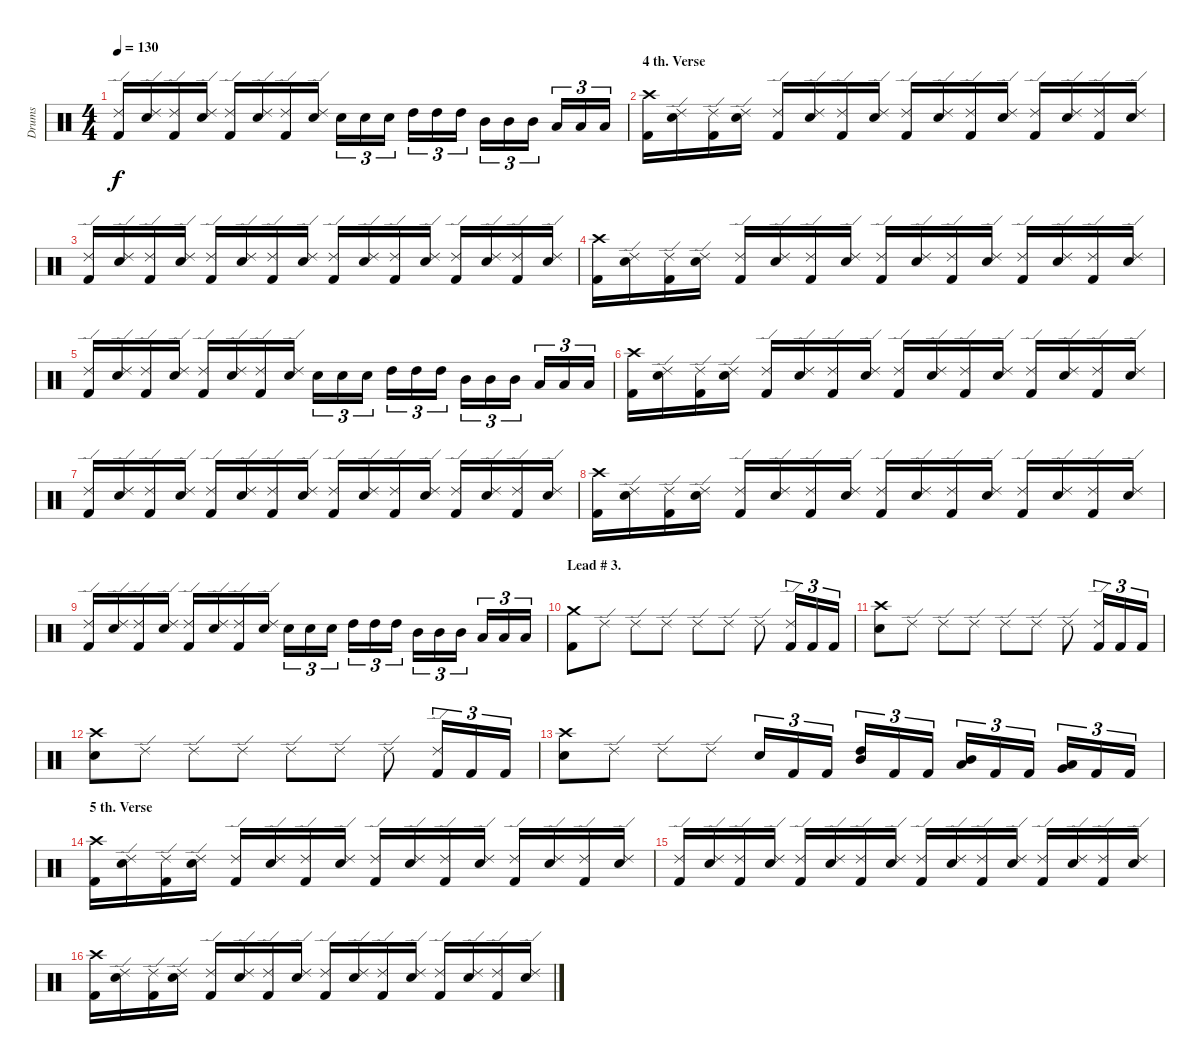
\track ("Drums" "Drums") {instrument percussion}
\staff {score}
\articulation defaults
\ts (4 4)
\tempo 130
\clef neutral
\ks c
("Ride (edge) 2" "Kick (hit) 2").16{dy f} ("Ride (edge) 2" "Snare (hit) 2").16 ("Ride (edge) 2" "Kick (hit) 2").16 ("Ride (edge) 2" "Snare (hit) 2").16 ("Ride (edge) 2" "Kick (hit) 2").16 ("Ride (edge) 2" "Snare (hit) 2").16 ("Ride (edge) 2" "Kick (hit) 2").16 ("Ride (edge) 2" "Snare (hit) 2").16 "Snare (hit) 2".16{tu (3 2)} "Snare (hit) 2".16{tu (3 2)} "Snare (hit) 2".16{tu (3 2)} "High Tom (hit)".16{tu (3 2)} "High Tom (hit)".16{tu (3 2)} "High Tom (hit)".16{tu (3 2)} "Mid Tom (hit)".16{tu (3 2)} "Mid Tom (hit)".16{tu (3 2)} "Mid Tom (hit)".16{tu (3 2)} "Low Tom (hit)".16{tu (3 2)} "Low Tom (hit)".16{tu (3 2)} "Low Tom (hit)".16{tu (3 2)} |
\section ("" "4 th. Verse")
("Crash high (hit)" "Kick (hit) 2").16 ("Ride (edge) 2" "Snare (hit) 2").16 ("Ride (edge) 2" "Kick (hit) 2").16 ("Ride (edge) 2" "Snare (hit) 2").16 ("Ride (edge) 2" "Kick (hit) 2").16 ("Ride (edge) 2" "Snare (hit) 2").16 ("Ride (edge) 2" "Kick (hit) 2").16 ("Ride (edge) 2" "Snare (hit) 2").16 ("Ride (edge) 2" "Kick (hit) 2").16 ("Ride (edge) 2" "Snare (hit) 2").16 ("Ride (edge) 2" "Kick (hit) 2").16 ("Ride (edge) 2" "Snare (hit) 2").16 ("Ride (edge) 2" "Kick (hit) 2").16 ("Ride (edge) 2" "Snare (hit) 2").16 ("Ride (edge) 2" "Kick (hit) 2").16 ("Ride (edge) 2" "Snare (hit) 2").16 |
("Ride (edge) 2" "Kick (hit) 2").16 ("Ride (edge) 2" "Snare (hit) 2").16 ("Ride (edge) 2" "Kick (hit) 2").16 ("Ride (edge) 2" "Snare (hit) 2").16 ("Ride (edge) 2" "Kick (hit) 2").16 ("Ride (edge) 2" "Snare (hit) 2").16 ("Ride (edge) 2" "Kick (hit) 2").16 ("Ride (edge) 2" "Snare (hit) 2").16 ("Ride (edge) 2" "Kick (hit) 2").16 ("Ride (edge) 2" "Snare (hit) 2").16 ("Ride (edge) 2" "Kick (hit) 2").16 ("Ride (edge) 2" "Snare (hit) 2").16 ("Ride (edge) 2" "Kick (hit) 2").16 ("Ride (edge) 2" "Snare (hit) 2").16 ("Ride (edge) 2" "Kick (hit) 2").16 ("Ride (edge) 2" "Snare (hit) 2").16 |
("Crash high (hit)" "Kick (hit) 2").16 ("Ride (edge) 2" "Snare (hit) 2").16 ("Ride (edge) 2" "Kick (hit) 2").16 ("Ride (edge) 2" "Snare (hit) 2").16 ("Ride (edge) 2" "Kick (hit) 2").16 ("Ride (edge) 2" "Snare (hit) 2").16 ("Ride (edge) 2" "Kick (hit) 2").16 ("Ride (edge) 2" "Snare (hit) 2").16 ("Ride (edge) 2" "Kick (hit) 2").16 ("Ride (edge) 2" "Snare (hit) 2").16 ("Ride (edge) 2" "Kick (hit) 2").16 ("Ride (edge) 2" "Snare (hit) 2").16 ("Ride (edge) 2" "Kick (hit) 2").16 ("Ride (edge) 2" "Snare (hit) 2").16 ("Ride (edge) 2" "Kick (hit) 2").16 ("Ride (edge) 2" "Snare (hit) 2").16 |
("Ride (edge) 2" "Kick (hit) 2").16 ("Ride (edge) 2" "Snare (hit) 2").16 ("Ride (edge) 2" "Kick (hit) 2").16 ("Ride (edge) 2" "Snare (hit) 2").16 ("Ride (edge) 2" "Kick (hit) 2").16 ("Ride (edge) 2" "Snare (hit) 2").16 ("Ride (edge) 2" "Kick (hit) 2").16 ("Ride (edge) 2" "Snare (hit) 2").16 "Snare (hit) 2".16{tu (3 2)} "Snare (hit) 2".16{tu (3 2)} "Snare (hit) 2".16{tu (3 2)} "High Tom (hit)".16{tu (3 2)} "High Tom (hit)".16{tu (3 2)} "High Tom (hit)".16{tu (3 2)} "Mid Tom (hit)".16{tu (3 2)} "Mid Tom (hit)".16{tu (3 2)} "Mid Tom (hit)".16{tu (3 2)} "Low Tom (hit)".16{tu (3 2)} "Low Tom (hit)".16{tu (3 2)} "Low Tom (hit)".16{tu (3 2)} |
("Crash high (hit)" "Kick (hit) 2").16 ("Ride (edge) 2" "Snare (hit) 2").16 ("Ride (edge) 2" "Kick (hit) 2").16 ("Ride (edge) 2" "Snare (hit) 2").16 ("Ride (edge) 2" "Kick (hit) 2").16 ("Ride (edge) 2" "Snare (hit) 2").16 ("Ride (edge) 2" "Kick (hit) 2").16 ("Ride (edge) 2" "Snare (hit) 2").16 ("Ride (edge) 2" "Kick (hit) 2").16 ("Ride (edge) 2" "Snare (hit) 2").16 ("Ride (edge) 2" "Kick (hit) 2").16 ("Ride (edge) 2" "Snare (hit) 2").16 ("Ride (edge) 2" "Kick (hit) 2").16 ("Ride (edge) 2" "Snare (hit) 2").16 ("Ride (edge) 2" "Kick (hit) 2").16 ("Ride (edge) 2" "Snare (hit) 2").16 |
("Ride (edge) 2" "Kick (hit) 2").16 ("Ride (edge) 2" "Snare (hit) 2").16 ("Ride (edge) 2" "Kick (hit) 2").16 ("Ride (edge) 2" "Snare (hit) 2").16 ("Ride (edge) 2" "Kick (hit) 2").16 ("Ride (edge) 2" "Snare (hit) 2").16 ("Ride (edge) 2" "Kick (hit) 2").16 ("Ride (edge) 2" "Snare (hit) 2").16 ("Ride (edge) 2" "Kick (hit) 2").16 ("Ride (edge) 2" "Snare (hit) 2").16 ("Ride (edge) 2" "Kick (hit) 2").16 ("Ride (edge) 2" "Snare (hit) 2").16 ("Ride (edge) 2" "Kick (hit) 2").16 ("Ride (edge) 2" "Snare (hit) 2").16 ("Ride (edge) 2" "Kick (hit) 2").16 ("Ride (edge) 2" "Snare (hit) 2").16 |
("Crash high (hit)" "Kick (hit) 2").16 ("Ride (edge) 2" "Snare (hit) 2").16 ("Ride (edge) 2" "Kick (hit) 2").16 ("Ride (edge) 2" "Snare (hit) 2").16 ("Ride (edge) 2" "Kick (hit) 2").16 ("Ride (edge) 2" "Snare (hit) 2").16 ("Ride (edge) 2" "Kick (hit) 2").16 ("Ride (edge) 2" "Snare (hit) 2").16 ("Ride (edge) 2" "Kick (hit) 2").16 ("Ride (edge) 2" "Snare (hit) 2").16 ("Ride (edge) 2" "Kick (hit) 2").16 ("Ride (edge) 2" "Snare (hit) 2").16 ("Ride (edge) 2" "Kick (hit) 2").16 ("Ride (edge) 2" "Snare (hit) 2").16 ("Ride (edge) 2" "Kick (hit) 2").16 ("Ride (edge) 2" "Snare (hit) 2").16 |
("Ride (edge) 2" "Kick (hit) 2").16 ("Ride (edge) 2" "Snare (hit) 2").16 ("Ride (edge) 2" "Kick (hit) 2").16 ("Ride (edge) 2" "Snare (hit) 2").16 ("Ride (edge) 2" "Kick (hit) 2").16 ("Ride (edge) 2" "Snare (hit) 2").16 ("Ride (edge) 2" "Kick (hit) 2").16 ("Ride (edge) 2" "Snare (hit) 2").16 "Snare (hit) 2".16{tu (3 2)} "Snare (hit) 2".16{tu (3 2)} "Snare (hit) 2".16{tu (3 2)} "High Tom (hit)".16{tu (3 2)} "High Tom (hit)".16{tu (3 2)} "High Tom (hit)".16{tu (3 2)} "Mid Tom (hit)".16{tu (3 2)} "Mid Tom (hit)".16{tu (3 2)} "Mid Tom (hit)".16{tu (3 2)} "Low Tom (hit)".16{tu (3 2)} "Low Tom (hit)".16{tu (3 2)} "Low Tom (hit)".16{tu (3 2)} |
\section ("" "Lead # 3.")
("Crash medium (hit)" "Kick (hit) 2").8 "Ride (edge) 2".8 "Ride (edge) 2".8 "Ride (edge) 2".8 "Ride (edge) 2".8 "Ride (edge) 2".8 "Ride (edge) 2".8 ("Ride (edge) 2" "Kick (hit) 2").16{tu (3 2)} "Kick (hit) 2".16{tu (3 2)} "Kick (hit) 2".16{tu (3 2)} |
("Crash high (hit)" "Snare (hit) 2").8 "Ride (edge) 2".8 "Ride (edge) 2".8 "Ride (edge) 2".8 "Ride (edge) 2".8 "Ride (edge) 2".8 "Ride (edge) 2".8 ("Ride (edge) 2" "Kick (hit) 2").16{tu (3 2)} "Kick (hit) 2".16{tu (3 2)} "Kick (hit) 2".16{tu (3 2)} |
("Crash high (hit)" "Snare (hit) 2").8 "Ride (edge) 2".8 "Ride (edge) 2".8 "Ride (edge) 2".8 "Ride (edge) 2".8 "Ride (edge) 2".8 "Ride (edge) 2".8 ("Ride (edge) 2" "Kick (hit) 2").16{tu (3 2)} "Kick (hit) 2".16{tu (3 2)} "Kick (hit) 2".16{tu (3 2)} |
("Crash high (hit)" "Snare (hit) 2").8 "Ride (edge) 2".8 "Ride (edge) 2".8 "Ride (edge) 2".8 "Snare (hit) 2".16{tu (3 2)} "Kick (hit) 2".16{tu (3 2)} "Kick (hit) 2".16{tu (3 2)} ("Mid Tom (hit)" "High Tom (hit)").16{tu (3 2)} "Kick (hit) 2".16{tu (3 2)} "Kick (hit) 2".16{tu (3 2)} ("Mid Tom (hit)" "Low Tom (hit)").16{tu (3 2)} "Kick (hit) 2".16{tu (3 2)} "Kick (hit) 2".16{tu (3 2)} ("Very Low Tom (hit)" "Low Floor Tom (hit)").16{tu (3 2)} "Kick (hit) 2".16{tu (3 2)} "Kick (hit) 2".16{tu (3 2)} |
\section ("" "5 th. Verse")
("Crash high (hit)" "Kick (hit) 2").16 ("Ride (edge) 2" "Snare (hit) 2").16 ("Ride (edge) 2" "Kick (hit) 2").16 ("Ride (edge) 2" "Snare (hit) 2").16 ("Ride (edge) 2" "Kick (hit) 2").16 ("Ride (edge) 2" "Snare (hit) 2").16 ("Ride (edge) 2" "Kick (hit) 2").16 ("Ride (edge) 2" "Snare (hit) 2").16 ("Ride (edge) 2" "Kick (hit) 2").16 ("Ride (edge) 2" "Snare (hit) 2").16 ("Ride (edge) 2" "Kick (hit) 2").16 ("Ride (edge) 2" "Snare (hit) 2").16 ("Ride (edge) 2" "Kick (hit) 2").16 ("Ride (edge) 2" "Snare (hit) 2").16 ("Ride (edge) 2" "Kick (hit) 2").16 ("Ride (edge) 2" "Snare (hit) 2").16 |
("Ride (edge) 2" "Kick (hit) 2").16 ("Ride (edge) 2" "Snare (hit) 2").16 ("Ride (edge) 2" "Kick (hit) 2").16 ("Ride (edge) 2" "Snare (hit) 2").16 ("Ride (edge) 2" "Kick (hit) 2").16 ("Ride (edge) 2" "Snare (hit) 2").16 ("Ride (edge) 2" "Kick (hit) 2").16 ("Ride (edge) 2" "Snare (hit) 2").16 ("Ride (edge) 2" "Kick (hit) 2").16 ("Ride (edge) 2" "Snare (hit) 2").16 ("Ride (edge) 2" "Kick (hit) 2").16 ("Ride (edge) 2" "Snare (hit) 2").16 ("Ride (edge) 2" "Kick (hit) 2").16 ("Ride (edge) 2" "Snare (hit) 2").16 ("Ride (edge) 2" "Kick (hit) 2").16 ("Ride (edge) 2" "Snare (hit) 2").16 |
("Crash high (hit)" "Kick (hit) 2").16 ("Ride (edge) 2" "Snare (hit) 2").16 ("Ride (edge) 2" "Kick (hit) 2").16 ("Ride (edge) 2" "Snare (hit) 2").16 ("Ride (edge) 2" "Kick (hit) 2").16 ("Ride (edge) 2" "Snare (hit) 2").16 ("Ride (edge) 2" "Kick (hit) 2").16 ("Ride (edge) 2" "Snare (hit) 2").16 ("Ride (edge) 2" "Kick (hit) 2").16 ("Ride (edge) 2" "Snare (hit) 2").16 ("Ride (edge) 2" "Kick (hit) 2").16 ("Ride (edge) 2" "Snare (hit) 2").16 ("Ride (edge) 2" "Kick (hit) 2").16 ("Ride (edge) 2" "Snare (hit) 2").16 ("Ride (edge) 2" "Kick (hit) 2").16 ("Ride (edge) 2" "Snare (hit) 2").16
